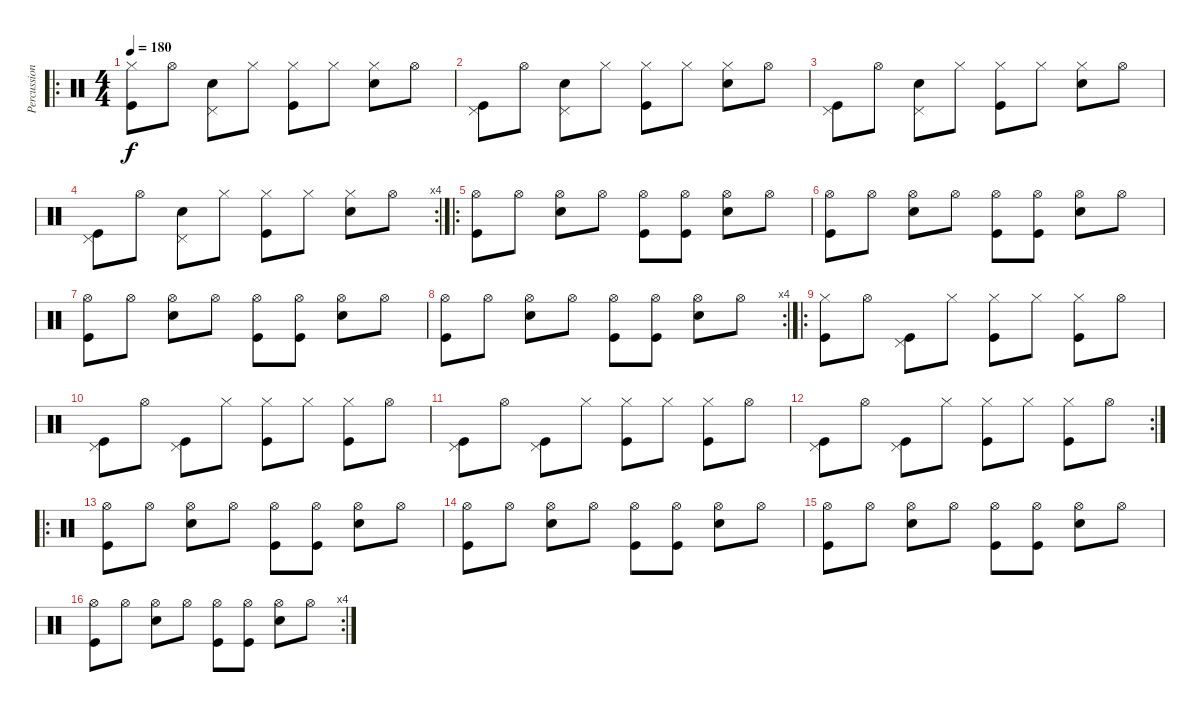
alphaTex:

\track ("Percussion" "Percussion") {instrument percussion}
\staff {score}
\articulation defaults
\ro
\ts (4 4)
\tempo 180
\clef neutral
\ks c
("Hi-Hat (closed)" "Kick (hit)").8{dy f} "Hi-Hat (open)".8 ("Pedal Hi-Hat (hit)" "Snare (hit) 2").8 "Hi-Hat (closed)".8 ("Hi-Hat (closed)" "Kick (hit)").8 "Hi-Hat (closed)".8 ("Hi-Hat (closed)" "Snare (hit) 2").8 "Hi-Hat (open)".8 |
("Pedal Hi-Hat (hit)" "Kick (hit)").8 "Hi-Hat (open)".8 ("Pedal Hi-Hat (hit)" "Snare (hit) 2").8 "Hi-Hat (closed)".8 ("Hi-Hat (closed)" "Kick (hit)").8 "Hi-Hat (closed)".8 ("Hi-Hat (closed)" "Snare (hit) 2").8 "Hi-Hat (open)".8 |
("Pedal Hi-Hat (hit)" "Kick (hit)").8 "Hi-Hat (open)".8 ("Pedal Hi-Hat (hit)" "Snare (hit) 2").8 "Hi-Hat (closed)".8 ("Hi-Hat (closed)" "Kick (hit)").8 "Hi-Hat (closed)".8 ("Hi-Hat (closed)" "Snare (hit) 2").8 "Hi-Hat (open)".8 |
\rc 4
("Pedal Hi-Hat (hit)" "Kick (hit)").8 "Hi-Hat (open)".8 ("Pedal Hi-Hat (hit)" "Snare (hit) 2").8 "Hi-Hat (closed)".8 ("Hi-Hat (closed)" "Kick (hit)").8 "Hi-Hat (closed)".8 ("Hi-Hat (closed)" "Snare (hit) 2").8 "Hi-Hat (open)".8 |
\ro
("Hi-Hat (open)" "Kick (hit)").8 "Hi-Hat (open)".8 ("Hi-Hat (open)" "Snare (hit) 2").8 "Hi-Hat (open)".8 ("Hi-Hat (open)" "Kick (hit)").8 ("Hi-Hat (open)" "Kick (hit)").8 ("Hi-Hat (open)" "Snare (hit) 2").8 "Hi-Hat (open)".8 |
("Hi-Hat (open)" "Kick (hit)").8 "Hi-Hat (open)".8 ("Hi-Hat (open)" "Snare (hit) 2").8 "Hi-Hat (open)".8 ("Hi-Hat (open)" "Kick (hit)").8 ("Hi-Hat (open)" "Kick (hit)").8 ("Hi-Hat (open)" "Snare (hit) 2").8 "Hi-Hat (open)".8 |
("Hi-Hat (open)" "Kick (hit)").8 "Hi-Hat (open)".8 ("Hi-Hat (open)" "Snare (hit) 2").8 "Hi-Hat (open)".8 ("Hi-Hat (open)" "Kick (hit)").8 ("Hi-Hat (open)" "Kick (hit)").8 ("Hi-Hat (open)" "Snare (hit) 2").8 "Hi-Hat (open)".8 |
\rc 4
("Hi-Hat (open)" "Kick (hit)").8 "Hi-Hat (open)".8 ("Hi-Hat (open)" "Snare (hit) 2").8 "Hi-Hat (open)".8 ("Hi-Hat (open)" "Kick (hit)").8 ("Hi-Hat (open)" "Kick (hit)").8 ("Hi-Hat (open)" "Snare (hit) 2").8 "Hi-Hat (open)".8 |
\ro
("Hi-Hat (closed)" "Kick (hit)").8 "Hi-Hat (open)".8 ("Pedal Hi-Hat (hit)" "Kick (hit)").8 "Hi-Hat (closed)".8 ("Hi-Hat (closed)" "Kick (hit)").8 "Hi-Hat (closed)".8 ("Hi-Hat (closed)" "Kick (hit)").8 "Hi-Hat (open)".8 |
("Pedal Hi-Hat (hit)" "Kick (hit)").8 "Hi-Hat (open)".8 ("Pedal Hi-Hat (hit)" "Kick (hit)").8 "Hi-Hat (closed)".8 ("Hi-Hat (closed)" "Kick (hit)").8 "Hi-Hat (closed)".8 ("Hi-Hat (closed)" "Kick (hit)").8 "Hi-Hat (open)".8 |
("Pedal Hi-Hat (hit)" "Kick (hit)").8 "Hi-Hat (open)".8 ("Pedal Hi-Hat (hit)" "Kick (hit)").8 "Hi-Hat (closed)".8 ("Hi-Hat (closed)" "Kick (hit)").8 "Hi-Hat (closed)".8 ("Hi-Hat (closed)" "Kick (hit)").8 "Hi-Hat (open)".8 |
\rc 2
("Pedal Hi-Hat (hit)" "Kick (hit)").8 "Hi-Hat (open)".8 ("Pedal Hi-Hat (hit)" "Kick (hit)").8 "Hi-Hat (closed)".8 ("Hi-Hat (closed)" "Kick (hit)").8 "Hi-Hat (closed)".8 ("Hi-Hat (closed)" "Kick (hit)").8 "Hi-Hat (open)".8 |
\ro
("Hi-Hat (open)" "Kick (hit)").8 "Hi-Hat (open)".8 ("Hi-Hat (open)" "Snare (hit) 2").8 "Hi-Hat (open)".8 ("Hi-Hat (open)" "Kick (hit)").8 ("Hi-Hat (open)" "Kick (hit)").8 ("Hi-Hat (open)" "Snare (hit) 2").8 "Hi-Hat (open)".8 |
("Hi-Hat (open)" "Kick (hit)").8 "Hi-Hat (open)".8 ("Hi-Hat (open)" "Snare (hit) 2").8 "Hi-Hat (open)".8 ("Hi-Hat (open)" "Kick (hit)").8 ("Hi-Hat (open)" "Kick (hit)").8 ("Hi-Hat (open)" "Snare (hit) 2").8 "Hi-Hat (open)".8 |
("Hi-Hat (open)" "Kick (hit)").8 "Hi-Hat (open)".8 ("Hi-Hat (open)" "Snare (hit) 2").8 "Hi-Hat (open)".8 ("Hi-Hat (open)" "Kick (hit)").8 ("Hi-Hat (open)" "Kick (hit)").8 ("Hi-Hat (open)" "Snare (hit) 2").8 "Hi-Hat (open)".8 |
\rc 4
("Hi-Hat (open)" "Kick (hit)").8 "Hi-Hat (open)".8 ("Hi-Hat (open)" "Snare (hit) 2").8 "Hi-Hat (open)".8 ("Hi-Hat (open)" "Kick (hit)").8 ("Hi-Hat (open)" "Kick (hit)").8 ("Hi-Hat (open)" "Snare (hit) 2").8 "Hi-Hat (open)".8
